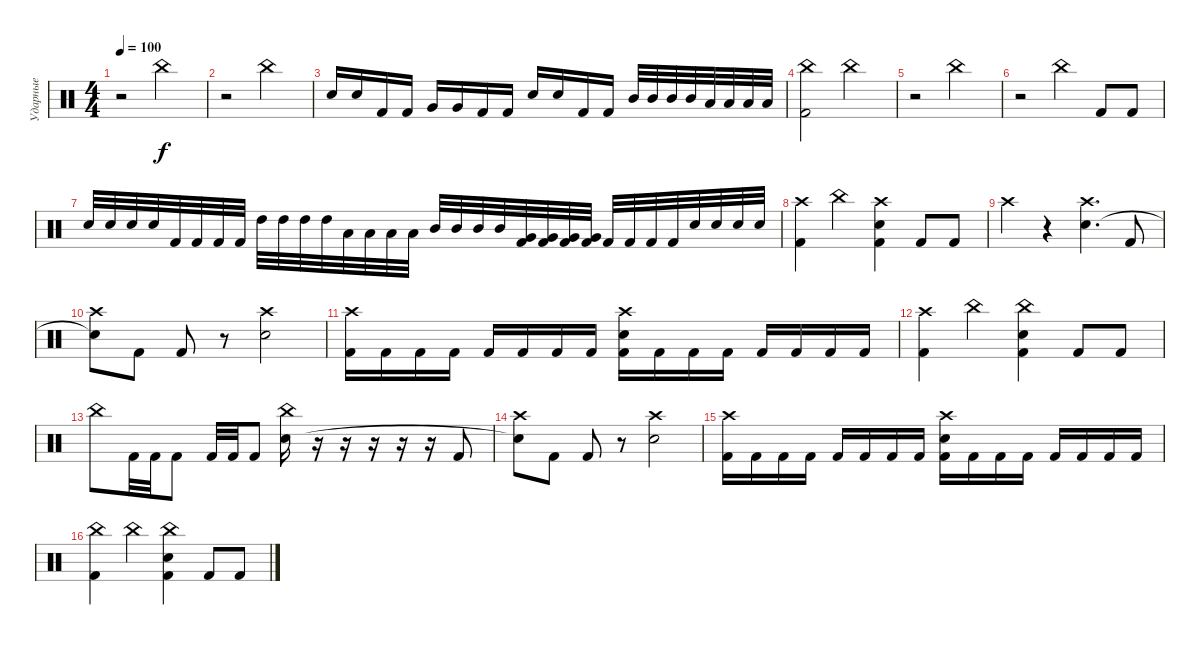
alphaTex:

\track ("Ударные" "Ударные") {instrument percussion}
\staff {score}
\articulation defaults
\ts (4 4)
\tempo 100
\clef neutral
\ks c
r.2{dy f} "China (hit)".2 |
r.2 "China (hit)".2 |
"Electric Snare (hit)".16 "Electric Snare (hit)".16 "Kick (hit) 2".16 "Kick (hit) 2".16 "Very Low Tom (hit)".16 "Very Low Tom (hit)".16 "Kick (hit) 2".16 "Kick (hit) 2".16 "Electric Snare (hit)".16 "Electric Snare (hit)".16 "Kick (hit) 2".16 "Kick (hit) 2".16 "Mid Tom (hit)".32 "Mid Tom (hit)".32 "Mid Tom (hit)".32 "Mid Tom (hit)".32 "Low Tom (hit)".32 "Low Tom (hit)".32 "Low Tom (hit)".32 "Low Tom (hit)".32 |
("China (hit)" "Kick (hit) 2").2 "China (hit)".2 |
r.2 "China (hit)".2 |
r.2 "China (hit)".4 "Kick (hit) 2".8 "Kick (hit) 2".8 |
"Electric Snare (hit)".32 "Electric Snare (hit)".32 "Electric Snare (hit)".32 "Electric Snare (hit)".32 "Kick (hit) 2".32 "Kick (hit) 2".32 "Kick (hit) 2".32 "Kick (hit) 2".32 "High Tom (hit)".32 "High Tom (hit)".32 "High Tom (hit)".32 "High Tom (hit)".32 "Low Tom (hit)".32 "Low Tom (hit)".32 "Low Tom (hit)".32 "Low Tom (hit)".32 "Mid Tom (hit)".32 "Mid Tom (hit)".32 "Mid Tom (hit)".32 "Mid Tom (hit)".32 ("Very Low Tom (hit)" "Kick (hit) 2").32 ("Very Low Tom (hit)" "Kick (hit) 2").32 ("Very Low Tom (hit)" "Kick (hit) 2").32 ("Very Low Tom (hit)" "Kick (hit) 2").32 "Kick (hit) 2".32 "Kick (hit) 2".32 "Kick (hit) 2".32 "Kick (hit) 2".32 "Electric Snare (hit)".32 "Electric Snare (hit)".32 "Electric Snare (hit)".32 "Electric Snare (hit)".32 |
("Crash high (hit)" "Kick (hit) 2").4 "China (hit)".4 ("Crash high (hit)" "Electric Snare (hit)" "Kick (hit) 2").4 "Kick (hit) 2".8 "Kick (hit) 2".8 |
"Crash high (hit)".4 r.4 ("Crash high (hit)" "Electric Snare (hit)").4{d} "Kick (hit) 2".8 |
("Crash high (hit)" "Snare (hit)"{t}).8 "Kick (hit) 2".8 "Kick (hit) 2".8 r.8 ("Crash high (hit)" "Electric Snare (hit)").2 |
("Crash high (hit)" "Kick (hit) 2").16 "Kick (hit) 2".16 "Kick (hit) 2".16 "Kick (hit) 2".16 "Kick (hit) 2".16 "Kick (hit) 2".16 "Kick (hit) 2".16 "Kick (hit) 2".16 ("Crash high (hit)" "Electric Snare (hit)" "Kick (hit) 2").16 "Kick (hit) 2".16 "Kick (hit) 2".16 "Kick (hit) 2".16 "Kick (hit) 2".16 "Kick (hit) 2".16 "Kick (hit) 2".16 "Kick (hit) 2".16 |
("Crash high (hit)" "Kick (hit) 2").4 "China (hit)".4 ("China (hit)" "Electric Snare (hit)" "Kick (hit) 2").4 "Kick (hit) 2".8 "Kick (hit) 2".8 |
"China (hit)".8 "Kick (hit) 2".32 "Kick (hit) 2".32 "Kick (hit) 2".8 "Kick (hit) 2".32 "Kick (hit) 2".32 "Kick (hit) 2".8 ("China (hit)" "Electric Snare (hit)").16 r.16 r.16 r.16 r.16 r.16 "Kick (hit) 2".8 |
("Crash high (hit)" "Snare (hit)"{t}).8 "Kick (hit) 2".8 "Kick (hit) 2".8 r.8 ("Crash high (hit)" "Electric Snare (hit)").2 |
("Crash high (hit)" "Kick (hit) 2").16 "Kick (hit) 2".16 "Kick (hit) 2".16 "Kick (hit) 2".16 "Kick (hit) 2".16 "Kick (hit) 2".16 "Kick (hit) 2".16 "Kick (hit) 2".16 ("Crash high (hit)" "Electric Snare (hit)" "Kick (hit) 2").16 "Kick (hit) 2".16 "Kick (hit) 2".16 "Kick (hit) 2".16 "Kick (hit) 2".16 "Kick (hit) 2".16 "Kick (hit) 2".16 "Kick (hit) 2".16 |
("China (hit)" "Kick (hit) 2").4 "China (hit)".4 ("China (hit)" "Electric Snare (hit)" "Kick (hit) 2").4 "Kick (hit) 2".8 "Kick (hit) 2".8
